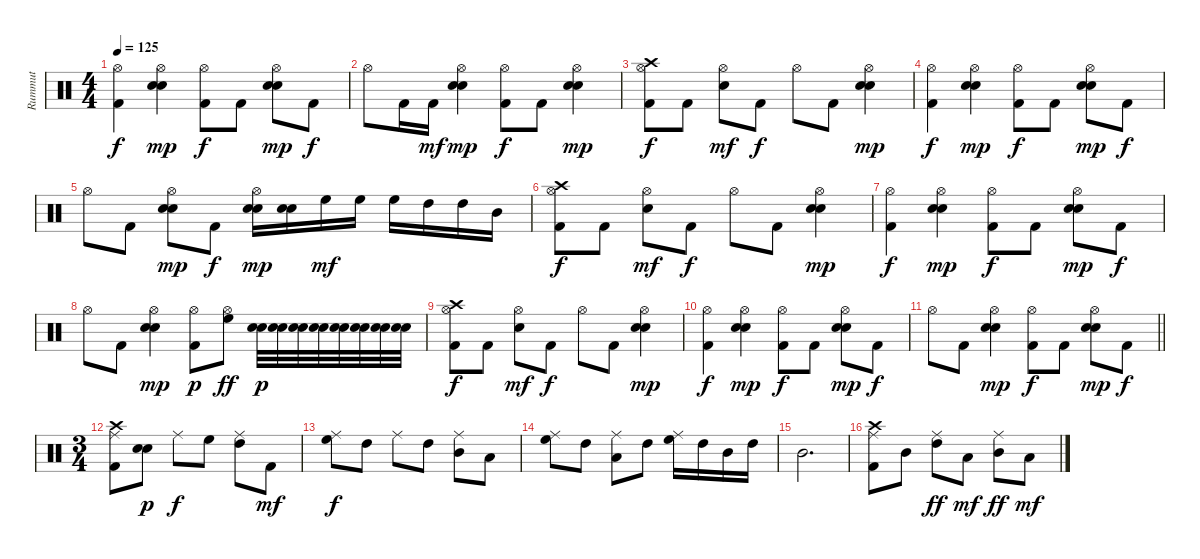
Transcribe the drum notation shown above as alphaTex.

\track ("Rummut" "Rummut") {instrument percussion}
\staff {score}
\articulation defaults
\ts (4 4)
\tempo 125
\clef neutral
\ks c
("Hi-Hat (open)" "Kick (hit) 2").4{dy f} ("Hi-Hat (open)" "Electric Snare (hit)" "Snare (hit) 2").4{dy mp} ("Hi-Hat (open)" "Kick (hit) 2").8{dy f} "Kick (hit) 2".8 ("Hi-Hat (open)" "Electric Snare (hit)" "Snare (hit) 2").8{dy mp} "Kick (hit) 2".8{dy f} |
"Hi-Hat (open)".8 "Kick (hit) 2".16 "Kick (hit) 2".16{dy mf} ("Hi-Hat (open)" "Electric Snare (hit)" "Snare (hit) 2").4{dy mp} ("Hi-Hat (open)" "Kick (hit) 2").8{dy f} "Kick (hit) 2".8 ("Hi-Hat (open)" "Electric Snare (hit)" "Snare (hit) 2").4{dy mp} |
("Crash high (hit)" "Hi-Hat (open)" "Kick (hit) 2").8{dy f} "Kick (hit) 2".8 ("Hi-Hat (open)" "Electric Snare (hit)").8{dy mf} "Kick (hit) 2".8{dy f} "Hi-Hat (open)".8 "Kick (hit) 2".8 ("Hi-Hat (open)" "Electric Snare (hit)" "Snare (hit) 2").4{dy mp} |
("Hi-Hat (open)" "Kick (hit) 2").4{dy f} ("Hi-Hat (open)" "Electric Snare (hit)" "Snare (hit) 2").4{dy mp} ("Hi-Hat (open)" "Kick (hit) 2").8{dy f} "Kick (hit) 2".8 ("Hi-Hat (open)" "Electric Snare (hit)" "Snare (hit) 2").8{dy mp} "Kick (hit) 2".8{dy f} |
"Hi-Hat (open)".8 "Kick (hit) 2".8 ("Hi-Hat (open)" "Electric Snare (hit)" "Snare (hit) 2").8{dy mp} "Kick (hit) 2".8{dy f} ("Hi-Hat (open)" "Electric Snare (hit)" "Snare (hit) 2").16{dy mp} ("Electric Snare (hit)" "Snare (hit) 2").16 "High Floor Tom (hit)".16{dy mf} "High Floor Tom (hit)".16 "High Floor Tom (hit)".16 "High Tom (hit)".16 "High Tom (hit)".16 "Mid Tom (hit)".16 |
("Crash high (hit)" "Hi-Hat (open)" "Kick (hit) 2").8{dy f} "Kick (hit) 2".8 ("Hi-Hat (open)" "Electric Snare (hit)").8{dy mf} "Kick (hit) 2".8{dy f} "Hi-Hat (open)".8 "Kick (hit) 2".8 ("Hi-Hat (open)" "Electric Snare (hit)" "Snare (hit) 2").4{dy mp} |
("Hi-Hat (open)" "Kick (hit) 2").4{dy f} ("Hi-Hat (open)" "Electric Snare (hit)" "Snare (hit) 2").4{dy mp} ("Hi-Hat (open)" "Kick (hit) 2").8{dy f} "Kick (hit) 2".8 ("Hi-Hat (open)" "Electric Snare (hit)" "Snare (hit) 2").8{dy mp} "Kick (hit) 2".8{dy f} |
"Hi-Hat (open)".8 "Kick (hit) 2".8 ("Hi-Hat (open)" "Electric Snare (hit)" "Snare (hit) 2").4{dy mp} ("Hi-Hat (open)" "Kick (hit) 2").8{dy p} ("Hi-Hat (open)" "High Floor Tom (hit)").8{dy ff} ("Electric Snare (hit)" "Snare (hit) 2").32{dy p} ("Electric Snare (hit)" "Snare (hit) 2").32 ("Electric Snare (hit)" "Snare (hit) 2").32 ("Electric Snare (hit)" "Snare (hit) 2").32 ("Electric Snare (hit)" "Snare (hit) 2").32 ("Electric Snare (hit)" "Snare (hit) 2").32 ("Electric Snare (hit)" "Snare (hit) 2").32 ("Electric Snare (hit)" "Snare (hit) 2").32 |
("Crash high (hit)" "Hi-Hat (open)" "Kick (hit) 2").8{dy f} "Kick (hit) 2".8 ("Hi-Hat (open)" "Electric Snare (hit)").8{dy mf} "Kick (hit) 2".8{dy f} "Hi-Hat (open)".8 "Kick (hit) 2".8 ("Hi-Hat (open)" "Electric Snare (hit)" "Snare (hit) 2").4{dy mp} |
("Hi-Hat (open)" "Kick (hit) 2").4{dy f} ("Hi-Hat (open)" "Electric Snare (hit)" "Snare (hit) 2").4{dy mp} ("Hi-Hat (open)" "Kick (hit) 2").8{dy f} "Kick (hit) 2".8 ("Hi-Hat (open)" "Electric Snare (hit)" "Snare (hit) 2").8{dy mp} "Kick (hit) 2".8{dy f} |
\barLineRight lightlight "Hi-Hat (open)".8 "Kick (hit) 2".8
("Hi-Hat (open)" "Electric Snare (hit)" "Snare (hit) 2").4{dy mp} ("Hi-Hat (open)" "Kick (hit) 2").8{dy f} "Kick (hit) 2".8 ("Hi-Hat (open)" "Electric Snare (hit)" "Snare (hit) 2").8{dy mp} "Kick (hit) 2".8{dy f} |
\ts (3 4)
\section ("" "")
("Crash high (hit)" "Ride (middle)" "Kick (hit) 2").8 ("Electric Snare (hit)" "Snare (hit) 2").8{dy p} "Ride (middle)".8{dy f} "High Floor Tom (hit)".8 ("Ride (middle)" "High Tom (hit)").8 "Kick (hit) 2".8{dy mf} |
("Ride (middle)" "High Floor Tom (hit)").8{dy f} "High Tom (hit)".8 "Ride (middle)".8 "High Tom (hit)".8 ("Ride (middle)" "Mid Tom (hit)").8 "Low Tom (hit)".8 |
("Ride (middle)" "High Floor Tom (hit)").8 "High Tom (hit)".8 ("Ride (middle)" "Low Tom (hit)").8 "High Tom (hit)".8 ("Ride (middle)" "High Floor Tom (hit)").16 "High Tom (hit)".16 "Mid Tom (hit)".16 "High Tom (hit)".16 |
"Mid Tom (hit)".2{d} |
("Crash high (hit)" "Ride (middle)" "Kick (hit) 2").8 "Mid Tom (hit)".8 ("Ride (middle)" "High Tom (hit)").8{dy ff} "Low Floor Tom (hit)".8{dy mf} ("Ride (middle)" "Mid Tom (hit)").8{dy ff} "Low Floor Tom (hit)".8{dy mf}
